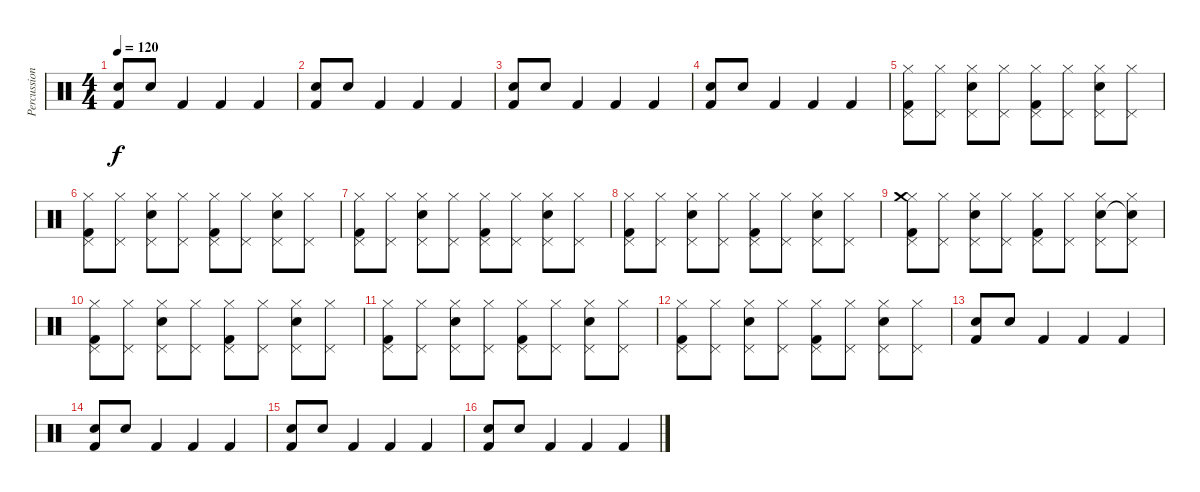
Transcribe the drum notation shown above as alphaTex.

\track ("Percussions" "Percussion") {instrument percussion}
\staff {score}
\articulation defaults
\ts (4 4)
\tempo 120
\clef neutral
\ks c
("Electric Snare (hit)" "Kick (hit) 2").8{dy f} "Electric Snare (hit)".8 "Kick (hit) 2".4 "Kick (hit) 2".4 "Kick (hit) 2".4 |
("Electric Snare (hit)" "Kick (hit) 2").8 "Electric Snare (hit)".8 "Kick (hit) 2".4 "Kick (hit) 2".4 "Kick (hit) 2".4 |
("Electric Snare (hit)" "Kick (hit) 2").8 "Electric Snare (hit)".8 "Kick (hit) 2".4 "Kick (hit) 2".4 "Kick (hit) 2".4 |
("Electric Snare (hit)" "Kick (hit) 2").8 "Electric Snare (hit)".8 "Kick (hit) 2".4 "Kick (hit) 2".4 "Kick (hit) 2".4 |
("Hi-Hat (closed)" "Pedal Hi-Hat (hit)" "Kick (hit) 2").8 ("Hi-Hat (closed)" "Pedal Hi-Hat (hit)").8 ("Hi-Hat (closed)" "Pedal Hi-Hat (hit)" "Electric Snare (hit)").8 ("Hi-Hat (closed)" "Pedal Hi-Hat (hit)").8 ("Hi-Hat (closed)" "Pedal Hi-Hat (hit)" "Kick (hit) 2").8 ("Hi-Hat (closed)" "Pedal Hi-Hat (hit)").8 ("Hi-Hat (closed)" "Pedal Hi-Hat (hit)" "Electric Snare (hit)").8 ("Hi-Hat (closed)" "Pedal Hi-Hat (hit)").8 |
("Hi-Hat (closed)" "Pedal Hi-Hat (hit)" "Kick (hit) 2").8 ("Hi-Hat (closed)" "Pedal Hi-Hat (hit)").8 ("Hi-Hat (closed)" "Pedal Hi-Hat (hit)" "Electric Snare (hit)").8 ("Hi-Hat (closed)" "Pedal Hi-Hat (hit)").8 ("Hi-Hat (closed)" "Pedal Hi-Hat (hit)" "Kick (hit) 2").8 ("Hi-Hat (closed)" "Pedal Hi-Hat (hit)").8 ("Hi-Hat (closed)" "Pedal Hi-Hat (hit)" "Electric Snare (hit)").8 ("Hi-Hat (closed)" "Pedal Hi-Hat (hit)").8 |
("Hi-Hat (closed)" "Pedal Hi-Hat (hit)" "Kick (hit) 2").8 ("Hi-Hat (closed)" "Pedal Hi-Hat (hit)").8 ("Hi-Hat (closed)" "Pedal Hi-Hat (hit)" "Electric Snare (hit)").8 ("Hi-Hat (closed)" "Pedal Hi-Hat (hit)").8 ("Hi-Hat (closed)" "Pedal Hi-Hat (hit)" "Kick (hit) 2").8 ("Hi-Hat (closed)" "Pedal Hi-Hat (hit)").8 ("Hi-Hat (closed)" "Pedal Hi-Hat (hit)" "Electric Snare (hit)").8 ("Hi-Hat (closed)" "Pedal Hi-Hat (hit)").8 |
("Hi-Hat (closed)" "Pedal Hi-Hat (hit)" "Kick (hit) 2").8 ("Hi-Hat (closed)" "Pedal Hi-Hat (hit)").8 ("Hi-Hat (closed)" "Pedal Hi-Hat (hit)" "Electric Snare (hit)").8 ("Hi-Hat (closed)" "Pedal Hi-Hat (hit)").8 ("Hi-Hat (closed)" "Pedal Hi-Hat (hit)" "Kick (hit) 2").8 ("Hi-Hat (closed)" "Pedal Hi-Hat (hit)").8 ("Hi-Hat (closed)" "Pedal Hi-Hat (hit)" "Electric Snare (hit)").8 ("Hi-Hat (closed)" "Pedal Hi-Hat (hit)").8 |
("Hi-Hat (closed)" "Pedal Hi-Hat (hit)" "Crash medium (hit)" "Kick (hit) 2").8 ("Hi-Hat (closed)" "Pedal Hi-Hat (hit)").8 ("Hi-Hat (closed)" "Pedal Hi-Hat (hit)" "Electric Snare (hit)").8 ("Hi-Hat (closed)" "Pedal Hi-Hat (hit)").8 ("Hi-Hat (closed)" "Pedal Hi-Hat (hit)" "Kick (hit) 2").8 ("Hi-Hat (closed)" "Pedal Hi-Hat (hit)").8 ("Hi-Hat (closed)" "Pedal Hi-Hat (hit)" "Electric Snare (hit)").8 ("Hi-Hat (closed)" "Pedal Hi-Hat (hit)" "Snare (hit)"{t}).8 |
("Hi-Hat (closed)" "Pedal Hi-Hat (hit)" "Kick (hit) 2").8 ("Hi-Hat (closed)" "Pedal Hi-Hat (hit)").8 ("Hi-Hat (closed)" "Pedal Hi-Hat (hit)" "Electric Snare (hit)").8 ("Hi-Hat (closed)" "Pedal Hi-Hat (hit)").8 ("Hi-Hat (closed)" "Pedal Hi-Hat (hit)" "Kick (hit) 2").8 ("Hi-Hat (closed)" "Pedal Hi-Hat (hit)").8 ("Hi-Hat (closed)" "Pedal Hi-Hat (hit)" "Electric Snare (hit)").8 ("Hi-Hat (closed)" "Pedal Hi-Hat (hit)").8 |
("Hi-Hat (closed)" "Pedal Hi-Hat (hit)" "Kick (hit) 2").8 ("Hi-Hat (closed)" "Pedal Hi-Hat (hit)").8 ("Hi-Hat (closed)" "Pedal Hi-Hat (hit)" "Electric Snare (hit)").8 ("Hi-Hat (closed)" "Pedal Hi-Hat (hit)").8 ("Hi-Hat (closed)" "Pedal Hi-Hat (hit)" "Kick (hit) 2").8 ("Hi-Hat (closed)" "Pedal Hi-Hat (hit)").8 ("Hi-Hat (closed)" "Pedal Hi-Hat (hit)" "Electric Snare (hit)").8 ("Hi-Hat (closed)" "Pedal Hi-Hat (hit)").8 |
("Hi-Hat (closed)" "Pedal Hi-Hat (hit)" "Kick (hit) 2").8 ("Hi-Hat (closed)" "Pedal Hi-Hat (hit)").8 ("Hi-Hat (closed)" "Pedal Hi-Hat (hit)" "Electric Snare (hit)").8 ("Hi-Hat (closed)" "Pedal Hi-Hat (hit)").8 ("Hi-Hat (closed)" "Pedal Hi-Hat (hit)" "Kick (hit) 2").8 ("Hi-Hat (closed)" "Pedal Hi-Hat (hit)").8 ("Hi-Hat (closed)" "Pedal Hi-Hat (hit)" "Electric Snare (hit)").8 ("Hi-Hat (closed)" "Pedal Hi-Hat (hit)").8 |
("Electric Snare (hit)" "Kick (hit) 2").8 "Electric Snare (hit)".8 "Kick (hit) 2".4 "Kick (hit) 2".4 "Kick (hit) 2".4 |
("Electric Snare (hit)" "Kick (hit) 2").8 "Electric Snare (hit)".8 "Kick (hit) 2".4 "Kick (hit) 2".4 "Kick (hit) 2".4 |
("Electric Snare (hit)" "Kick (hit) 2").8 "Electric Snare (hit)".8 "Kick (hit) 2".4 "Kick (hit) 2".4 "Kick (hit) 2".4 |
("Electric Snare (hit)" "Kick (hit) 2").8 "Electric Snare (hit)".8 "Kick (hit) 2".4 "Kick (hit) 2".4 "Kick (hit) 2".4
